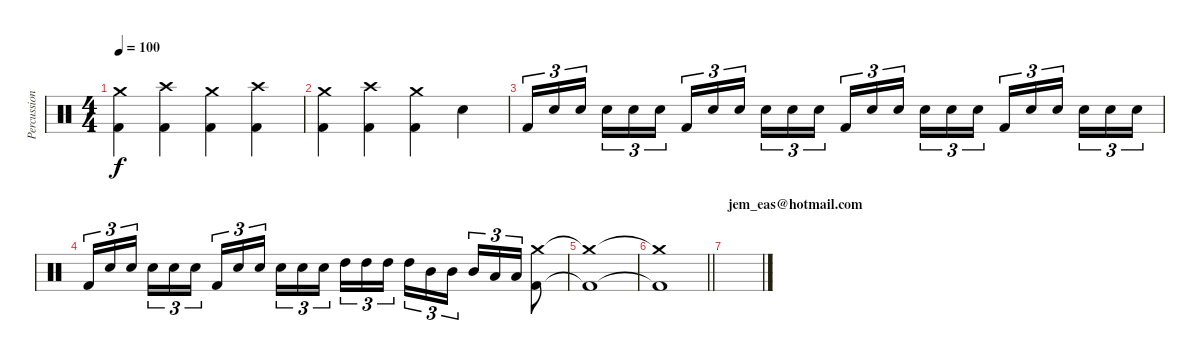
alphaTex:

\track ("Percussions" "Percussion") {instrument percussion}
\staff {score}
\articulation defaults
\ts (4 4)
\tempo 100
\clef neutral
\ks c
("Crash medium (hit)" "Kick (hit) 2").4{dy f} ("Crash high (hit)" "Kick (hit) 2").4 ("Crash medium (hit)" "Kick (hit) 2").4 ("Crash high (hit)" "Kick (hit) 2").4 |
("Crash medium (hit)" "Kick (hit) 2").4 ("Crash high (hit)" "Kick (hit) 2").4 ("Crash medium (hit)" "Kick (hit) 2").4 "Electric Snare (hit)".4 |
"Kick (hit) 2".16{tu (3 2)} "Electric Snare (hit)".16{tu (3 2)} "Electric Snare (hit)".16{tu (3 2) beam splitsecondary} "Electric Snare (hit)".16{tu (3 2)} "Electric Snare (hit)".16{tu (3 2)} "Electric Snare (hit)".16{tu (3 2)} "Kick (hit) 2".16{tu (3 2)} "Electric Snare (hit)".16{tu (3 2)} "Electric Snare (hit)".16{tu (3 2) beam splitsecondary} "Electric Snare (hit)".16{tu (3 2)} "Electric Snare (hit)".16{tu (3 2)} "Electric Snare (hit)".16{tu (3 2)} "Kick (hit) 2".16{tu (3 2)} "Electric Snare (hit)".16{tu (3 2)} "Electric Snare (hit)".16{tu (3 2) beam splitsecondary} "Electric Snare (hit)".16{tu (3 2)} "Electric Snare (hit)".16{tu (3 2)} "Electric Snare (hit)".16{tu (3 2)} "Kick (hit) 2".16{tu (3 2)} "Electric Snare (hit)".16{tu (3 2)} "Electric Snare (hit)".16{tu (3 2) beam splitsecondary} "Electric Snare (hit)".16{tu (3 2)} "Electric Snare (hit)".16{tu (3 2)} "Electric Snare (hit)".16{tu (3 2)} |
"Kick (hit) 2".16{tu (3 2)} "Electric Snare (hit)".16{tu (3 2)} "Electric Snare (hit)".16{tu (3 2) beam splitsecondary} "Electric Snare (hit)".16{tu (3 2)} "Electric Snare (hit)".16{tu (3 2)} "Electric Snare (hit)".16{tu (3 2)} "Kick (hit) 2".16{tu (3 2)} "Electric Snare (hit)".16{tu (3 2)} "Electric Snare (hit)".16{tu (3 2) beam splitsecondary} "Electric Snare (hit)".16{tu (3 2)} "Electric Snare (hit)".16{tu (3 2)} "Electric Snare (hit)".16{tu (3 2)} "High Tom (hit)".16{tu (3 2)} "High Tom (hit)".16{tu (3 2)} "High Tom (hit)".16{tu (3 2) beam splitsecondary} "High Tom (hit)".16{tu (3 2)} "Mid Tom (hit)".16{tu (3 2)} "Mid Tom (hit)".16{tu (3 2)} "Mid Tom (hit)".16{tu (3 2)} "Low Tom (hit)".16{tu (3 2)} "Low Tom (hit)".16{tu (3 2)} ("Crash medium (hit)" "Kick (hit) 2").8 |
("Crash medium (hit)"{t} "Kick (hit) 2"{t}).1{volume 9} |
\barLineRight lightlight
("Crash medium (hit)"{t} "Kick (hit) 2"{t}).1 |
\section ("" "jem_eas@hotmail.com")
